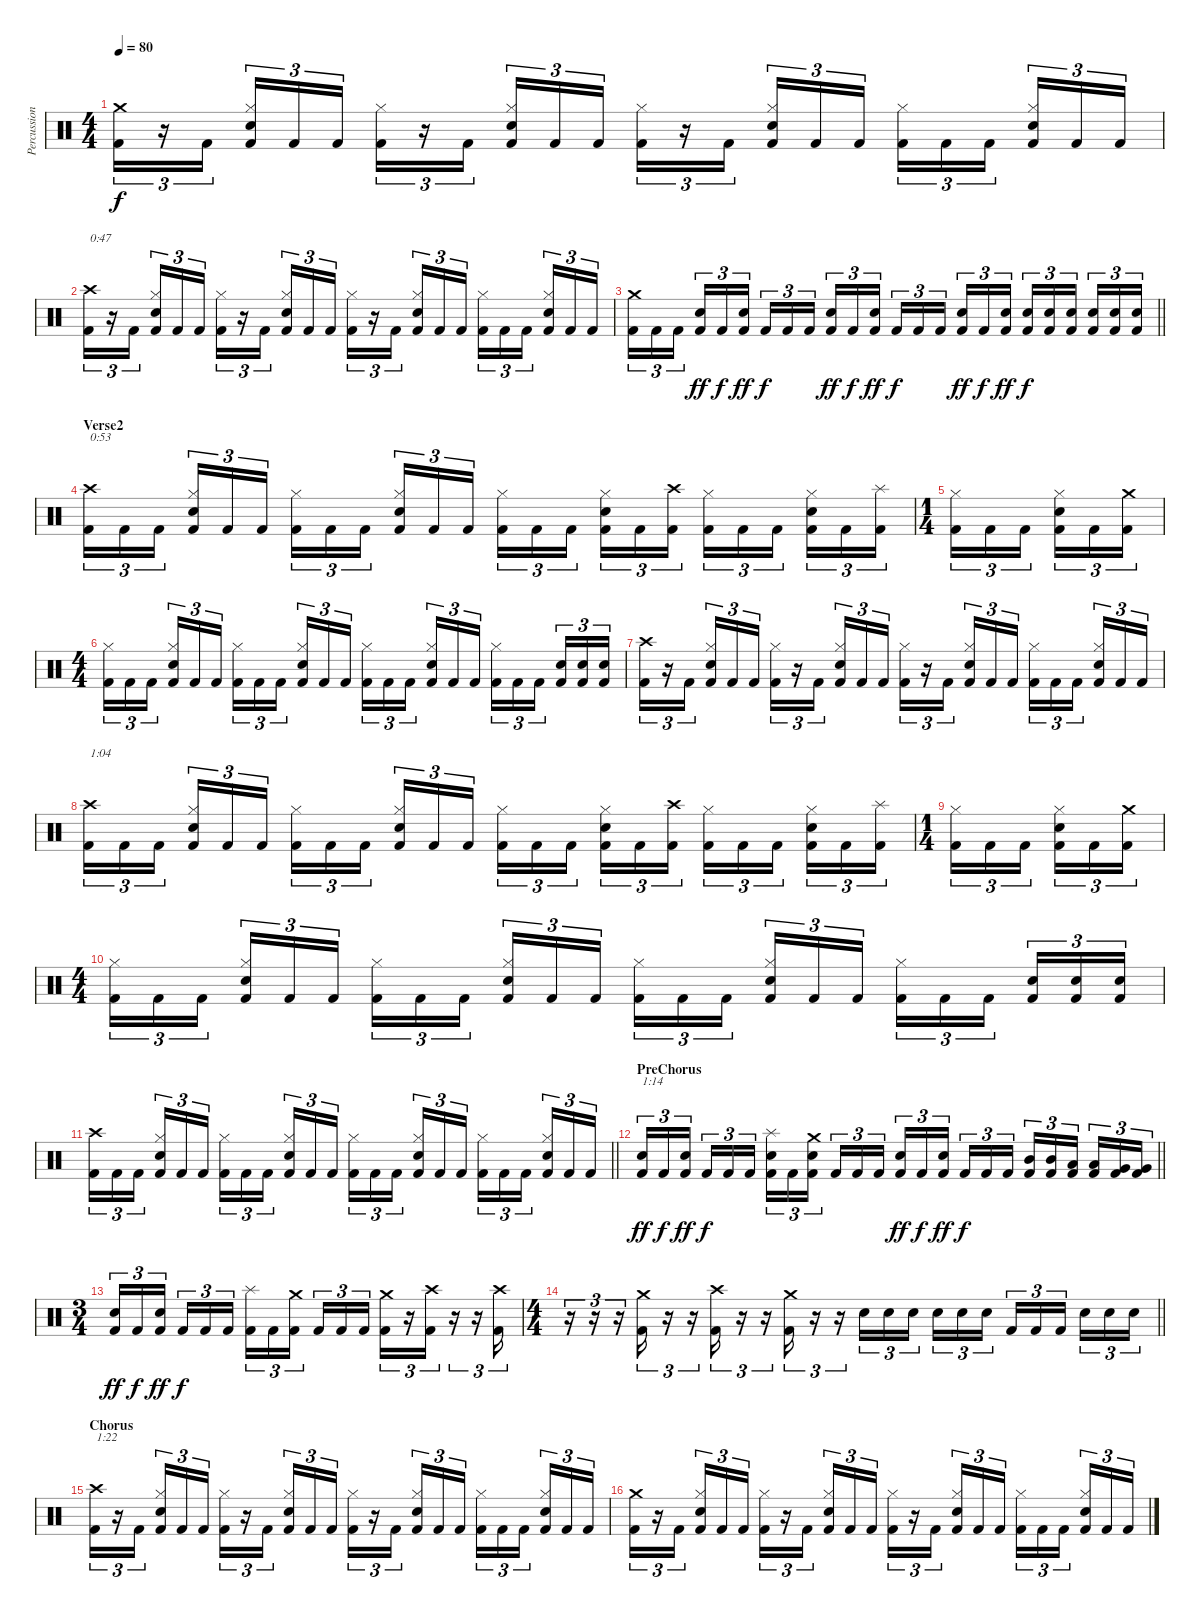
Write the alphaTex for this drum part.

\track ("Percussion" "Percussion") {instrument percussion}
\staff {score}
\articulation defaults
\ts (4 4)
\tempo 80
\clef neutral
\ks c
("Crash medium (hit)" "Kick (hit) 2").16{tu (3 2) dy f} r.16{tu (3 2)} "Kick (hit) 2".16{tu (3 2) beam splitsecondary} ("Hi-Hat (closed)" "Snare (hit) 2" "Kick (hit) 2").16{tu (3 2)} "Kick (hit) 2".16{tu (3 2)} "Kick (hit) 2".16{tu (3 2)} ("Hi-Hat (closed)" "Kick (hit) 2").16{tu (3 2)} r.16{tu (3 2)} "Kick (hit) 2".16{tu (3 2) beam splitsecondary} ("Hi-Hat (closed)" "Snare (hit) 2" "Kick (hit) 2").16{tu (3 2)} "Kick (hit) 2".16{tu (3 2)} "Kick (hit) 2".16{tu (3 2)} ("Hi-Hat (closed)" "Kick (hit) 2").16{tu (3 2)} r.16{tu (3 2)} "Kick (hit) 2".16{tu (3 2) beam splitsecondary} ("Hi-Hat (closed)" "Snare (hit) 2" "Kick (hit) 2").16{tu (3 2)} "Kick (hit) 2".16{tu (3 2)} "Kick (hit) 2".16{tu (3 2)} ("Hi-Hat (closed)" "Kick (hit) 2").16{tu (3 2)} "Kick (hit) 2".16{tu (3 2)} "Kick (hit) 2".16{tu (3 2) beam splitsecondary} ("Hi-Hat (closed)" "Snare (hit) 2" "Kick (hit) 2").16{tu (3 2)} "Kick (hit) 2".16{tu (3 2)} "Kick (hit) 2".16{tu (3 2)} |
("Crash high (hit)" "Kick (hit) 2").16{tu (3 2) txt "0:47"} r.16{tu (3 2)} "Kick (hit) 2".16{tu (3 2) beam splitsecondary} ("Hi-Hat (closed)" "Snare (hit) 2" "Kick (hit) 2").16{tu (3 2)} "Kick (hit) 2".16{tu (3 2)} "Kick (hit) 2".16{tu (3 2)} ("Hi-Hat (closed)" "Kick (hit) 2").16{tu (3 2)} r.16{tu (3 2)} "Kick (hit) 2".16{tu (3 2) beam splitsecondary} ("Hi-Hat (closed)" "Snare (hit) 2" "Kick (hit) 2").16{tu (3 2)} "Kick (hit) 2".16{tu (3 2)} "Kick (hit) 2".16{tu (3 2)} ("Hi-Hat (closed)" "Kick (hit) 2").16{tu (3 2)} r.16{tu (3 2)} "Kick (hit) 2".16{tu (3 2) beam splitsecondary} ("Hi-Hat (closed)" "Snare (hit) 2" "Kick (hit) 2").16{tu (3 2)} "Kick (hit) 2".16{tu (3 2)} "Kick (hit) 2".16{tu (3 2)} ("Hi-Hat (closed)" "Kick (hit) 2").16{tu (3 2)} "Kick (hit) 2".16{tu (3 2)} "Kick (hit) 2".16{tu (3 2) beam splitsecondary} ("Hi-Hat (closed)" "Snare (hit) 2" "Kick (hit) 2").16{tu (3 2)} "Kick (hit) 2".16{tu (3 2)} "Kick (hit) 2".16{tu (3 2)} |
\barLineRight lightlight
("Crash medium (hit)" "Kick (hit) 2").16{tu (3 2)} "Kick (hit) 2".16{tu (3 2)} "Kick (hit) 2".16{tu (3 2) beam splitsecondary} ("Snare (hit) 2" "Kick (hit) 2").16{tu (3 2) dy ff} "Kick (hit) 2".16{tu (3 2) dy f} ("Snare (hit) 2" "Kick (hit) 2").16{tu (3 2) dy ff} "Kick (hit) 2".16{tu (3 2) dy f} "Kick (hit) 2".16{tu (3 2)} "Kick (hit) 2".16{tu (3 2) beam splitsecondary} ("Snare (hit) 2" "Kick (hit) 2").16{tu (3 2) dy ff} "Kick (hit) 2".16{tu (3 2) dy f} ("Snare (hit) 2" "Kick (hit) 2").16{tu (3 2) dy ff} "Kick (hit) 2".16{tu (3 2) dy f} "Kick (hit) 2".16{tu (3 2)} "Kick (hit) 2".16{tu (3 2) beam splitsecondary} ("Snare (hit) 2" "Kick (hit) 2").16{tu (3 2) dy ff} "Kick (hit) 2".16{tu (3 2) dy f} ("Snare (hit) 2" "Kick (hit) 2").16{tu (3 2) dy ff} ("Snare (hit) 2" "Kick (hit) 2").16{tu (3 2) dy f} ("Snare (hit) 2" "Kick (hit) 2").16{tu (3 2)} ("Snare (hit) 2" "Kick (hit) 2").16{tu (3 2) beam splitsecondary} ("Snare (hit) 2" "Kick (hit) 2").16{tu (3 2)} ("Snare (hit) 2" "Kick (hit) 2").16{tu (3 2)} ("Snare (hit) 2" "Kick (hit) 2").16{tu (3 2)} |
\section ("" "Verse2")
("Crash high (hit)" "Kick (hit) 2").16{tu (3 2) txt "0:53"} "Kick (hit) 2".16{tu (3 2)} "Kick (hit) 2".16{tu (3 2) beam splitsecondary} ("Hi-Hat (closed)" "Snare (hit) 2" "Kick (hit) 2").16{tu (3 2)} "Kick (hit) 2".16{tu (3 2)} "Kick (hit) 2".16{tu (3 2)} ("Hi-Hat (closed)" "Kick (hit) 2").16{tu (3 2)} "Kick (hit) 2".16{tu (3 2)} "Kick (hit) 2".16{tu (3 2) beam splitsecondary} ("Hi-Hat (closed)" "Snare (hit) 2" "Kick (hit) 2").16{tu (3 2)} "Kick (hit) 2".16{tu (3 2)} "Kick (hit) 2".16{tu (3 2)} ("Hi-Hat (closed)" "Kick (hit) 2").16{tu (3 2)} "Kick (hit) 2".16{tu (3 2)} "Kick (hit) 2".16{tu (3 2) beam splitsecondary} ("Hi-Hat (closed)" "Snare (hit) 2" "Kick (hit) 2").16{tu (3 2)} "Kick (hit) 2".16{tu (3 2)} ("Crash high (hit)" "Kick (hit) 2").16{tu (3 2)} ("Hi-Hat (closed)" "Kick (hit) 2").16{tu (3 2)} "Kick (hit) 2".16{tu (3 2)} "Kick (hit) 2".16{tu (3 2) beam splitsecondary} ("Hi-Hat (closed)" "Snare (hit) 2" "Kick (hit) 2").16{tu (3 2)} "Kick (hit) 2".16{tu (3 2)} ("Splash (hit)" "Kick (hit) 2").16{tu (3 2)} |
\ts (1 4)
("Hi-Hat (closed)" "Kick (hit) 2").16{tu (3 2)} "Kick (hit) 2".16{tu (3 2)} "Kick (hit) 2".16{tu (3 2) beam splitsecondary} ("Hi-Hat (closed)" "Snare (hit) 2" "Kick (hit) 2").16{tu (3 2)} "Kick (hit) 2".16{tu (3 2)} ("Crash medium (hit)" "Kick (hit) 2").16{tu (3 2)} |
\ts (4 4)
("Hi-Hat (closed)" "Kick (hit) 2").16{tu (3 2)} "Kick (hit) 2".16{tu (3 2)} "Kick (hit) 2".16{tu (3 2) beam splitsecondary} ("Hi-Hat (closed)" "Snare (hit) 2" "Kick (hit) 2").16{tu (3 2)} "Kick (hit) 2".16{tu (3 2)} "Kick (hit) 2".16{tu (3 2)} ("Hi-Hat (closed)" "Kick (hit) 2").16{tu (3 2)} "Kick (hit) 2".16{tu (3 2)} "Kick (hit) 2".16{tu (3 2) beam splitsecondary} ("Hi-Hat (closed)" "Snare (hit) 2" "Kick (hit) 2").16{tu (3 2)} "Kick (hit) 2".16{tu (3 2)} "Kick (hit) 2".16{tu (3 2)} ("Hi-Hat (closed)" "Kick (hit) 2").16{tu (3 2)} "Kick (hit) 2".16{tu (3 2)} "Kick (hit) 2".16{tu (3 2) beam splitsecondary} ("Hi-Hat (closed)" "Snare (hit) 2" "Kick (hit) 2").16{tu (3 2)} "Kick (hit) 2".16{tu (3 2)} "Kick (hit) 2".16{tu (3 2)} ("Hi-Hat (closed)" "Kick (hit) 2").16{tu (3 2)} "Kick (hit) 2".16{tu (3 2)} "Kick (hit) 2".16{tu (3 2) beam splitsecondary} ("Snare (hit) 2" "Kick (hit) 2").16{tu (3 2)} ("Snare (hit) 2" "Kick (hit) 2").16{tu (3 2)} ("Snare (hit) 2" "Kick (hit) 2").16{tu (3 2)} |
("Crash high (hit)" "Kick (hit) 2").16{tu (3 2)} r.16{tu (3 2)} "Kick (hit) 2".16{tu (3 2) beam splitsecondary} ("Hi-Hat (closed)" "Snare (hit) 2" "Kick (hit) 2").16{tu (3 2)} "Kick (hit) 2".16{tu (3 2)} "Kick (hit) 2".16{tu (3 2)} ("Hi-Hat (closed)" "Kick (hit) 2").16{tu (3 2)} r.16{tu (3 2)} "Kick (hit) 2".16{tu (3 2) beam splitsecondary} ("Hi-Hat (closed)" "Snare (hit) 2" "Kick (hit) 2").16{tu (3 2)} "Kick (hit) 2".16{tu (3 2)} "Kick (hit) 2".16{tu (3 2)} ("Hi-Hat (closed)" "Kick (hit) 2").16{tu (3 2)} r.16{tu (3 2)} "Kick (hit) 2".16{tu (3 2) beam splitsecondary} ("Hi-Hat (closed)" "Snare (hit) 2" "Kick (hit) 2").16{tu (3 2)} "Kick (hit) 2".16{tu (3 2)} "Kick (hit) 2".16{tu (3 2)} ("Hi-Hat (closed)" "Kick (hit) 2").16{tu (3 2)} "Kick (hit) 2".16{tu (3 2)} "Kick (hit) 2".16{tu (3 2) beam splitsecondary} ("Hi-Hat (closed)" "Snare (hit) 2" "Kick (hit) 2").16{tu (3 2)} "Kick (hit) 2".16{tu (3 2)} "Kick (hit) 2".16{tu (3 2)} |
("Crash high (hit)" "Kick (hit) 2").16{tu (3 2) txt "1:04"} "Kick (hit) 2".16{tu (3 2)} "Kick (hit) 2".16{tu (3 2) beam splitsecondary} ("Hi-Hat (closed)" "Snare (hit) 2" "Kick (hit) 2").16{tu (3 2)} "Kick (hit) 2".16{tu (3 2)} "Kick (hit) 2".16{tu (3 2)} ("Hi-Hat (closed)" "Kick (hit) 2").16{tu (3 2)} "Kick (hit) 2".16{tu (3 2)} "Kick (hit) 2".16{tu (3 2) beam splitsecondary} ("Hi-Hat (closed)" "Snare (hit) 2" "Kick (hit) 2").16{tu (3 2)} "Kick (hit) 2".16{tu (3 2)} "Kick (hit) 2".16{tu (3 2)} ("Hi-Hat (closed)" "Kick (hit) 2").16{tu (3 2)} "Kick (hit) 2".16{tu (3 2)} "Kick (hit) 2".16{tu (3 2) beam splitsecondary} ("Hi-Hat (closed)" "Snare (hit) 2" "Kick (hit) 2").16{tu (3 2)} "Kick (hit) 2".16{tu (3 2)} ("Crash high (hit)" "Kick (hit) 2").16{tu (3 2)} ("Hi-Hat (closed)" "Kick (hit) 2").16{tu (3 2)} "Kick (hit) 2".16{tu (3 2)} "Kick (hit) 2".16{tu (3 2) beam splitsecondary} ("Hi-Hat (closed)" "Snare (hit) 2" "Kick (hit) 2").16{tu (3 2)} "Kick (hit) 2".16{tu (3 2)} ("Splash (hit)" "Kick (hit) 2").16{tu (3 2)} |
\ts (1 4)
("Hi-Hat (closed)" "Kick (hit) 2").16{tu (3 2)} "Kick (hit) 2".16{tu (3 2)} "Kick (hit) 2".16{tu (3 2) beam splitsecondary} ("Hi-Hat (closed)" "Snare (hit) 2" "Kick (hit) 2").16{tu (3 2)} "Kick (hit) 2".16{tu (3 2)} ("Crash medium (hit)" "Kick (hit) 2").16{tu (3 2)} |
\ts (4 4)
("Hi-Hat (closed)" "Kick (hit) 2").16{tu (3 2)} "Kick (hit) 2".16{tu (3 2)} "Kick (hit) 2".16{tu (3 2) beam splitsecondary} ("Hi-Hat (closed)" "Snare (hit) 2" "Kick (hit) 2").16{tu (3 2)} "Kick (hit) 2".16{tu (3 2)} "Kick (hit) 2".16{tu (3 2)} ("Hi-Hat (closed)" "Kick (hit) 2").16{tu (3 2)} "Kick (hit) 2".16{tu (3 2)} "Kick (hit) 2".16{tu (3 2) beam splitsecondary} ("Hi-Hat (closed)" "Snare (hit) 2" "Kick (hit) 2").16{tu (3 2)} "Kick (hit) 2".16{tu (3 2)} "Kick (hit) 2".16{tu (3 2)} ("Hi-Hat (closed)" "Kick (hit) 2").16{tu (3 2)} "Kick (hit) 2".16{tu (3 2)} "Kick (hit) 2".16{tu (3 2) beam splitsecondary} ("Hi-Hat (closed)" "Snare (hit) 2" "Kick (hit) 2").16{tu (3 2)} "Kick (hit) 2".16{tu (3 2)} "Kick (hit) 2".16{tu (3 2)} ("Hi-Hat (closed)" "Kick (hit) 2").16{tu (3 2)} "Kick (hit) 2".16{tu (3 2)} "Kick (hit) 2".16{tu (3 2) beam splitsecondary} ("Snare (hit) 2" "Kick (hit) 2").16{tu (3 2)} ("Snare (hit) 2" "Kick (hit) 2").16{tu (3 2)} ("Snare (hit) 2" "Kick (hit) 2").16{tu (3 2)} |
\barLineRight lightlight
("Crash high (hit)" "Kick (hit) 2").16{tu (3 2)} "Kick (hit) 2".16{tu (3 2)} "Kick (hit) 2".16{tu (3 2) beam splitsecondary} ("Hi-Hat (closed)" "Snare (hit) 2" "Kick (hit) 2").16{tu (3 2)} "Kick (hit) 2".16{tu (3 2)} "Kick (hit) 2".16{tu (3 2)} ("Hi-Hat (closed)" "Kick (hit) 2").16{tu (3 2)} "Kick (hit) 2".16{tu (3 2)} "Kick (hit) 2".16{tu (3 2) beam splitsecondary} ("Hi-Hat (closed)" "Snare (hit) 2" "Kick (hit) 2").16{tu (3 2)} "Kick (hit) 2".16{tu (3 2)} "Kick (hit) 2".16{tu (3 2)} ("Hi-Hat (closed)" "Kick (hit) 2").16{tu (3 2)} "Kick (hit) 2".16{tu (3 2)} "Kick (hit) 2".16{tu (3 2) beam splitsecondary} ("Hi-Hat (closed)" "Snare (hit) 2" "Kick (hit) 2").16{tu (3 2)} "Kick (hit) 2".16{tu (3 2)} "Kick (hit) 2".16{tu (3 2)} ("Hi-Hat (closed)" "Kick (hit) 2").16{tu (3 2)} "Kick (hit) 2".16{tu (3 2)} "Kick (hit) 2".16{tu (3 2) beam splitsecondary} ("Hi-Hat (closed)" "Snare (hit) 2" "Kick (hit) 2").16{tu (3 2)} "Kick (hit) 2".16{tu (3 2)} "Kick (hit) 2".16{tu (3 2)} |
\section ("" "PreChorus")
\barLineRight lightlight
("Snare (hit) 2" "Kick (hit) 2").16{tu (3 2) txt "1:14" dy ff} "Kick (hit) 2".16{tu (3 2) dy f} ("Snare (hit) 2" "Kick (hit) 2").16{tu (3 2) dy ff beam splitsecondary} "Kick (hit) 2".16{tu (3 2) dy f} "Kick (hit) 2".16{tu (3 2)} "Kick (hit) 2".16{tu (3 2)} ("Splash (hit)" "Snare (hit) 2" "Kick (hit) 2").16{tu (3 2)} "Kick (hit) 2".16{tu (3 2)} ("Crash medium (hit)" "Snare (hit) 2" "Kick (hit) 2").16{tu (3 2) beam splitsecondary} "Kick (hit) 2".16{tu (3 2)} "Kick (hit) 2".16{tu (3 2)} "Kick (hit) 2".16{tu (3 2)} ("Snare (hit) 2" "Kick (hit) 2").16{tu (3 2) dy ff} "Kick (hit) 2".16{tu (3 2) dy f} ("Snare (hit) 2" "Kick (hit) 2").16{tu (3 2) dy ff beam splitsecondary} "Kick (hit) 2".16{tu (3 2) dy f} "Kick (hit) 2".16{tu (3 2)} "Kick (hit) 2".16{tu (3 2)} ("Mid Tom (hit)" "Kick (hit) 2").16{tu (3 2)} ("Mid Tom (hit)" "Kick (hit) 2").16{tu (3 2)} ("Low Tom (hit)" "Kick (hit) 2").16{tu (3 2) beam splitsecondary} ("Low Tom (hit)" "Kick (hit) 2").16{tu (3 2)} ("Very Low Tom (hit)" "Kick (hit) 2").16{tu (3 2)} ("Very Low Tom (hit)" "Kick (hit) 2").16{tu (3 2)} |
\ts (3 4)
("Snare (hit) 2" "Kick (hit) 2").16{tu (3 2) dy ff} "Kick (hit) 2".16{tu (3 2) dy f} ("Snare (hit) 2" "Kick (hit) 2").16{tu (3 2) dy ff beam splitsecondary} "Kick (hit) 2".16{tu (3 2) dy f} "Kick (hit) 2".16{tu (3 2)} "Kick (hit) 2".16{tu (3 2)} ("Splash (hit)" "Kick (hit) 2").16{tu (3 2)} "Kick (hit) 2".16{tu (3 2)} ("Crash medium (hit)" "Kick (hit) 2").16{tu (3 2) beam splitsecondary} "Kick (hit) 2".16{tu (3 2)} "Kick (hit) 2".16{tu (3 2)} "Kick (hit) 2".16{tu (3 2)} ("Crash medium (hit)" "Kick (hit) 2").16{tu (3 2)} r.16{tu (3 2)} ("Crash high (hit)" "Kick (hit) 2").16{tu (3 2)} r.16{tu (3 2)} r.16{tu (3 2)} ("Crash high (hit)" "Kick (hit) 2").16{tu (3 2)} |
\ts (4 4)
\barLineRight lightlight
r.16{tu (3 2)} r.16{tu (3 2)} r.16{tu (3 2)} ("Crash medium (hit)" "Kick (hit) 2").16{tu (3 2)} r.16{tu (3 2)} r.16{tu (3 2)} ("Crash high (hit)" "Kick (hit) 2").16{tu (3 2)} r.16{tu (3 2)} r.16{tu (3 2)} ("Crash medium (hit)" "Kick (hit) 2").16{tu (3 2)} r.16{tu (3 2)} r.16{tu (3 2)} "Snare (hit) 2".16{tu (3 2)} "Snare (hit) 2".16{tu (3 2)} "Snare (hit) 2".16{tu (3 2) beam splitsecondary} "Snare (hit) 2".16{tu (3 2)} "Snare (hit) 2".16{tu (3 2)} "Snare (hit) 2".16{tu (3 2)} "Kick (hit) 2".16{tu (3 2)} "Kick (hit) 2".16{tu (3 2)} "Kick (hit) 2".16{tu (3 2) beam splitsecondary} "Snare (hit) 2".16{tu (3 2)} "Snare (hit) 2".16{tu (3 2)} "Snare (hit) 2".16{tu (3 2)} |
\section ("" "Chorus")
("Crash high (hit)" "Kick (hit) 2").16{tu (3 2) txt "1:22"} r.16{tu (3 2)} "Kick (hit) 2".16{tu (3 2) beam splitsecondary} ("Hi-Hat (closed)" "Snare (hit) 2" "Kick (hit) 2").16{tu (3 2)} "Kick (hit) 2".16{tu (3 2)} "Kick (hit) 2".16{tu (3 2)} ("Hi-Hat (closed)" "Kick (hit) 2").16{tu (3 2)} r.16{tu (3 2)} "Kick (hit) 2".16{tu (3 2) beam splitsecondary} ("Hi-Hat (closed)" "Snare (hit) 2" "Kick (hit) 2").16{tu (3 2)} "Kick (hit) 2".16{tu (3 2)} "Kick (hit) 2".16{tu (3 2)} ("Hi-Hat (closed)" "Kick (hit) 2").16{tu (3 2)} r.16{tu (3 2)} "Kick (hit) 2".16{tu (3 2) beam splitsecondary} ("Hi-Hat (closed)" "Snare (hit) 2" "Kick (hit) 2").16{tu (3 2)} "Kick (hit) 2".16{tu (3 2)} "Kick (hit) 2".16{tu (3 2)} ("Hi-Hat (closed)" "Kick (hit) 2").16{tu (3 2)} "Kick (hit) 2".16{tu (3 2)} "Kick (hit) 2".16{tu (3 2) beam splitsecondary} ("Hi-Hat (closed)" "Snare (hit) 2" "Kick (hit) 2").16{tu (3 2)} "Kick (hit) 2".16{tu (3 2)} "Kick (hit) 2".16{tu (3 2)} |
("Crash medium (hit)" "Kick (hit) 2").16{tu (3 2)} r.16{tu (3 2)} "Kick (hit) 2".16{tu (3 2) beam splitsecondary} ("Hi-Hat (closed)" "Snare (hit) 2" "Kick (hit) 2").16{tu (3 2)} "Kick (hit) 2".16{tu (3 2)} "Kick (hit) 2".16{tu (3 2)} ("Hi-Hat (closed)" "Kick (hit) 2").16{tu (3 2)} r.16{tu (3 2)} "Kick (hit) 2".16{tu (3 2) beam splitsecondary} ("Hi-Hat (closed)" "Snare (hit) 2" "Kick (hit) 2").16{tu (3 2)} "Kick (hit) 2".16{tu (3 2)} "Kick (hit) 2".16{tu (3 2)} ("Hi-Hat (closed)" "Kick (hit) 2").16{tu (3 2)} r.16{tu (3 2)} "Kick (hit) 2".16{tu (3 2) beam splitsecondary} ("Hi-Hat (closed)" "Snare (hit) 2" "Kick (hit) 2").16{tu (3 2)} "Kick (hit) 2".16{tu (3 2)} "Kick (hit) 2".16{tu (3 2)} ("Hi-Hat (closed)" "Kick (hit) 2").16{tu (3 2)} "Kick (hit) 2".16{tu (3 2)} "Kick (hit) 2".16{tu (3 2) beam splitsecondary} ("Hi-Hat (closed)" "Snare (hit) 2" "Kick (hit) 2").16{tu (3 2)} "Kick (hit) 2".16{tu (3 2)} "Kick (hit) 2".16{tu (3 2)}
